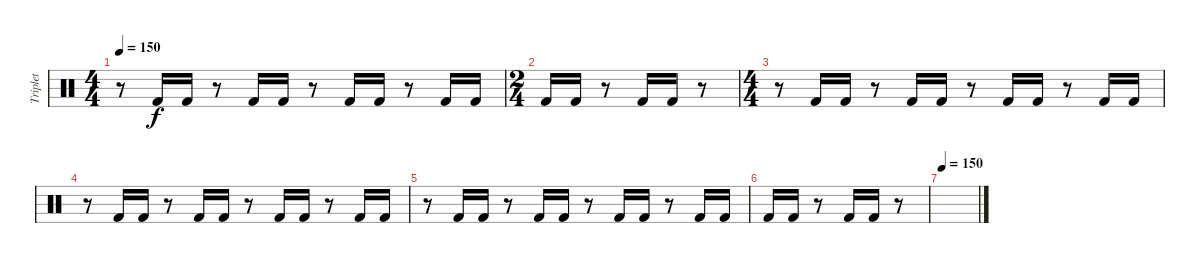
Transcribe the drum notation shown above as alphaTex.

\track ("Triplet" "Triplet") {instrument percussion}
\staff {score}
\articulation defaults
\ts (4 4)
\tempo 150
\clef neutral
\ks c
r.8{dy f} "Kick (hit) 2".16 "Kick (hit) 2".16 r.8 "Kick (hit) 2".16 "Kick (hit) 2".16 r.8 "Kick (hit) 2".16 "Kick (hit) 2".16 r.8 "Kick (hit) 2".16 "Kick (hit) 2".16 |
\ts (2 4)
"Kick (hit) 2".16 "Kick (hit) 2".16 r.8 "Kick (hit) 2".16 "Kick (hit) 2".16 r.8 |
\ts (4 4)
r.8 "Kick (hit) 2".16 "Kick (hit) 2".16 r.8 "Kick (hit) 2".16 "Kick (hit) 2".16 r.8 "Kick (hit) 2".16 "Kick (hit) 2".16 r.8 "Kick (hit) 2".16 "Kick (hit) 2".16 |
r.8 "Kick (hit) 2".16 "Kick (hit) 2".16 r.8 "Kick (hit) 2".16 "Kick (hit) 2".16 r.8 "Kick (hit) 2".16 "Kick (hit) 2".16 r.8 "Kick (hit) 2".16 "Kick (hit) 2".16 |
r.8 "Kick (hit) 2".16 "Kick (hit) 2".16 r.8 "Kick (hit) 2".16 "Kick (hit) 2".16 r.8 "Kick (hit) 2".16 "Kick (hit) 2".16 r.8 "Kick (hit) 2".16 "Kick (hit) 2".16 |
"Kick (hit) 2".16 "Kick (hit) 2".16 r.8 "Kick (hit) 2".16 "Kick (hit) 2".16 r.8 |
\tempo 150
